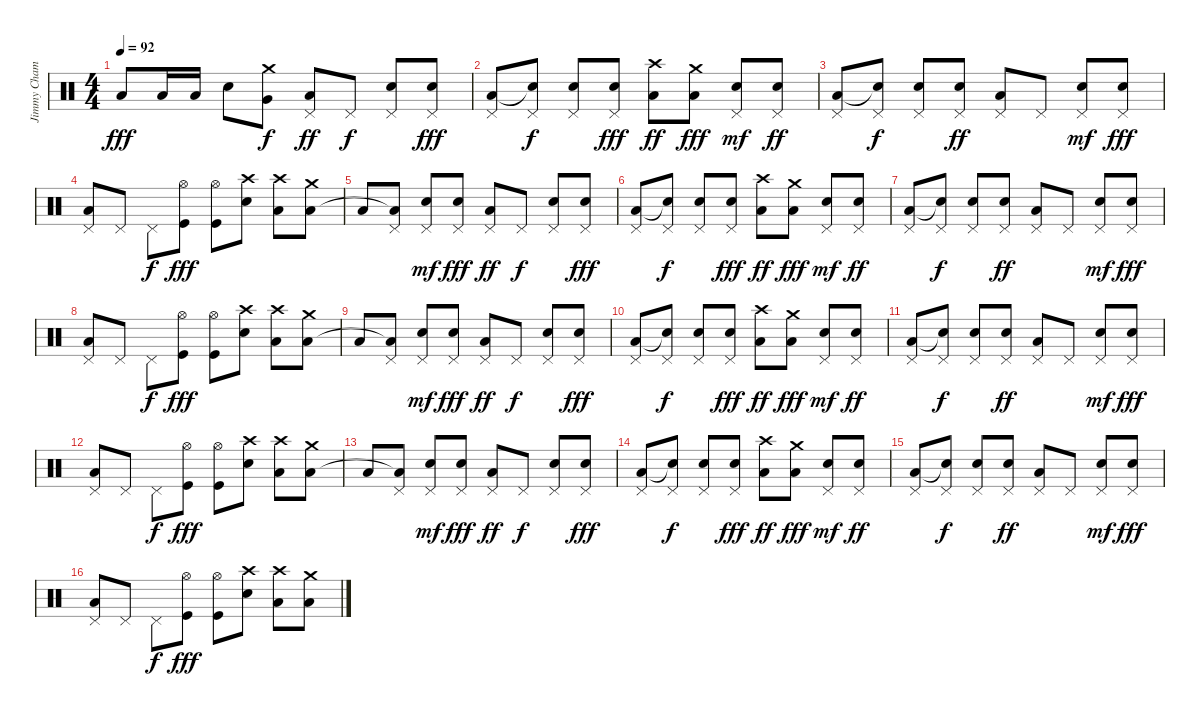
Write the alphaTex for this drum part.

\track ("Jimmy Chamberlin" "Jimmy Cham") {instrument percussion}
\staff {score}
\articulation defaults
\ts (4 4)
\tempo 92
\clef neutral
\ks c "Low Floor Tom (hit)".8{dy fff} "Low Tom (hit)".16 "Low Tom (hit)".16 "Snare (hit) 2".8
("Crash medium (hit)" "Very Low Tom (hit)").8{dy f} ("Pedal Hi-Hat (hit)" "Low Tom (hit)").8{dy ff} "Pedal Hi-Hat (hit)".8{dy f} ("Pedal Hi-Hat (hit)" "Snare (hit) 2").8 ("Pedal Hi-Hat (hit)" "Snare (hit) 2").8{dy fff} |
("Pedal Hi-Hat (hit)" "Low Tom (hit)").8 ("Pedal Hi-Hat (hit)" "Snare (hit)"{t}).8{dy f} ("Pedal Hi-Hat (hit)" "Snare (hit) 2").8 ("Pedal Hi-Hat (hit)" "Snare (hit) 2").8{dy fff} ("Crash high (hit)" "Low Tom (hit)").8{dy ff} ("Crash medium (hit)" "Low Floor Tom (hit)").8{dy fff} ("Pedal Hi-Hat (hit)" "Snare (hit) 2").8{dy mf} ("Pedal Hi-Hat (hit)" "Snare (hit) 2").8{dy ff} |
("Pedal Hi-Hat (hit)" "Low Tom (hit)").8 ("Pedal Hi-Hat (hit)" "Snare (hit)"{t}).8{dy f} ("Pedal Hi-Hat (hit)" "Snare (hit) 2").8 ("Pedal Hi-Hat (hit)" "Snare (hit) 2").8{dy ff} ("Pedal Hi-Hat (hit)" "Low Floor Tom (hit)").8 "Pedal Hi-Hat (hit)".8 ("Pedal Hi-Hat (hit)" "Snare (hit) 2").8{dy mf} ("Pedal Hi-Hat (hit)" "Snare (hit) 2").8{dy fff} |
("Pedal Hi-Hat (hit)" "Low Tom (hit)").8 "Pedal Hi-Hat (hit)".8 "Pedal Hi-Hat (hit)".8{dy f} ("Hi-Hat (open)" "Kick (hit)").8{dy fff} ("Hi-Hat (open)" "Kick (hit)").8 ("Crash high (hit)" "Snare (hit) 2").8 ("Crash high (hit)" "Low Tom (hit)").8 ("Crash medium (hit)" "Low Floor Tom (hit)").8 |
"Low Floor Tom (hit)".8 ("Pedal Hi-Hat (hit)" "Low Floor Tom (hit)"{t}).8 ("Pedal Hi-Hat (hit)" "Snare (hit) 2").8{dy mf} ("Pedal Hi-Hat (hit)" "Snare (hit) 2").8{dy fff} ("Pedal Hi-Hat (hit)" "Low Tom (hit)").8{dy ff} "Pedal Hi-Hat (hit)".8{dy f} ("Pedal Hi-Hat (hit)" "Snare (hit) 2").8 ("Pedal Hi-Hat (hit)" "Snare (hit) 2").8{dy fff} |
("Pedal Hi-Hat (hit)" "Low Tom (hit)").8 ("Pedal Hi-Hat (hit)" "Snare (hit)"{t}).8{dy f} ("Pedal Hi-Hat (hit)" "Snare (hit) 2").8 ("Pedal Hi-Hat (hit)" "Snare (hit) 2").8{dy fff} ("Crash high (hit)" "Low Tom (hit)").8{dy ff} ("Crash medium (hit)" "Low Floor Tom (hit)").8{dy fff} ("Pedal Hi-Hat (hit)" "Snare (hit) 2").8{dy mf} ("Pedal Hi-Hat (hit)" "Snare (hit) 2").8{dy ff} |
("Pedal Hi-Hat (hit)" "Low Tom (hit)").8 ("Pedal Hi-Hat (hit)" "Snare (hit)"{t}).8{dy f} ("Pedal Hi-Hat (hit)" "Snare (hit) 2").8 ("Pedal Hi-Hat (hit)" "Snare (hit) 2").8{dy ff} ("Pedal Hi-Hat (hit)" "Low Floor Tom (hit)").8 "Pedal Hi-Hat (hit)".8 ("Pedal Hi-Hat (hit)" "Snare (hit) 2").8{dy mf} ("Pedal Hi-Hat (hit)" "Snare (hit) 2").8{dy fff} |
("Pedal Hi-Hat (hit)" "Low Tom (hit)").8 "Pedal Hi-Hat (hit)".8 "Pedal Hi-Hat (hit)".8{dy f} ("Hi-Hat (open)" "Kick (hit)").8{dy fff} ("Hi-Hat (open)" "Kick (hit)").8 ("Crash high (hit)" "Snare (hit) 2").8 ("Crash high (hit)" "Low Tom (hit)").8 ("Crash medium (hit)" "Low Floor Tom (hit)").8 |
"Low Floor Tom (hit)".8 ("Pedal Hi-Hat (hit)" "Low Floor Tom (hit)"{t}).8 ("Pedal Hi-Hat (hit)" "Snare (hit) 2").8{dy mf} ("Pedal Hi-Hat (hit)" "Snare (hit) 2").8{dy fff} ("Pedal Hi-Hat (hit)" "Low Tom (hit)").8{dy ff} "Pedal Hi-Hat (hit)".8{dy f} ("Pedal Hi-Hat (hit)" "Snare (hit) 2").8 ("Pedal Hi-Hat (hit)" "Snare (hit) 2").8{dy fff} |
("Pedal Hi-Hat (hit)" "Low Tom (hit)").8 ("Pedal Hi-Hat (hit)" "Snare (hit)"{t}).8{dy f} ("Pedal Hi-Hat (hit)" "Snare (hit) 2").8 ("Pedal Hi-Hat (hit)" "Snare (hit) 2").8{dy fff} ("Crash high (hit)" "Low Tom (hit)").8{dy ff} ("Crash medium (hit)" "Low Floor Tom (hit)").8{dy fff} ("Pedal Hi-Hat (hit)" "Snare (hit) 2").8{dy mf} ("Pedal Hi-Hat (hit)" "Snare (hit) 2").8{dy ff} |
("Pedal Hi-Hat (hit)" "Low Tom (hit)").8 ("Pedal Hi-Hat (hit)" "Snare (hit)"{t}).8{dy f} ("Pedal Hi-Hat (hit)" "Snare (hit) 2").8 ("Pedal Hi-Hat (hit)" "Snare (hit) 2").8{dy ff} ("Pedal Hi-Hat (hit)" "Low Floor Tom (hit)").8 "Pedal Hi-Hat (hit)".8 ("Pedal Hi-Hat (hit)" "Snare (hit) 2").8{dy mf} ("Pedal Hi-Hat (hit)" "Snare (hit) 2").8{dy fff} |
("Pedal Hi-Hat (hit)" "Low Tom (hit)").8 "Pedal Hi-Hat (hit)".8 "Pedal Hi-Hat (hit)".8{dy f} ("Hi-Hat (open)" "Kick (hit)").8{dy fff} ("Hi-Hat (open)" "Kick (hit)").8 ("Crash high (hit)" "Snare (hit) 2").8 ("Crash high (hit)" "Low Tom (hit)").8 ("Crash medium (hit)" "Low Floor Tom (hit)").8 |
"Low Floor Tom (hit)".8 ("Pedal Hi-Hat (hit)" "Low Floor Tom (hit)"{t}).8 ("Pedal Hi-Hat (hit)" "Snare (hit) 2").8{dy mf} ("Pedal Hi-Hat (hit)" "Snare (hit) 2").8{dy fff} ("Pedal Hi-Hat (hit)" "Low Tom (hit)").8{dy ff} "Pedal Hi-Hat (hit)".8{dy f} ("Pedal Hi-Hat (hit)" "Snare (hit) 2").8 ("Pedal Hi-Hat (hit)" "Snare (hit) 2").8{dy fff} |
("Pedal Hi-Hat (hit)" "Low Tom (hit)").8 ("Pedal Hi-Hat (hit)" "Snare (hit)"{t}).8{dy f} ("Pedal Hi-Hat (hit)" "Snare (hit) 2").8 ("Pedal Hi-Hat (hit)" "Snare (hit) 2").8{dy fff} ("Crash high (hit)" "Low Tom (hit)").8{dy ff} ("Crash medium (hit)" "Low Floor Tom (hit)").8{dy fff} ("Pedal Hi-Hat (hit)" "Snare (hit) 2").8{dy mf} ("Pedal Hi-Hat (hit)" "Snare (hit) 2").8{dy ff} |
("Pedal Hi-Hat (hit)" "Low Tom (hit)").8 ("Pedal Hi-Hat (hit)" "Snare (hit)"{t}).8{dy f} ("Pedal Hi-Hat (hit)" "Snare (hit) 2").8 ("Pedal Hi-Hat (hit)" "Snare (hit) 2").8{dy ff} ("Pedal Hi-Hat (hit)" "Low Floor Tom (hit)").8 "Pedal Hi-Hat (hit)".8 ("Pedal Hi-Hat (hit)" "Snare (hit) 2").8{dy mf} ("Pedal Hi-Hat (hit)" "Snare (hit) 2").8{dy fff} |
("Pedal Hi-Hat (hit)" "Low Tom (hit)").8 "Pedal Hi-Hat (hit)".8 "Pedal Hi-Hat (hit)".8{dy f} ("Hi-Hat (open)" "Kick (hit)").8{dy fff} ("Hi-Hat (open)" "Kick (hit)").8 ("Crash high (hit)" "Snare (hit) 2").8 ("Crash high (hit)" "Low Tom (hit)").8 ("Crash medium (hit)" "Low Floor Tom (hit)").8
